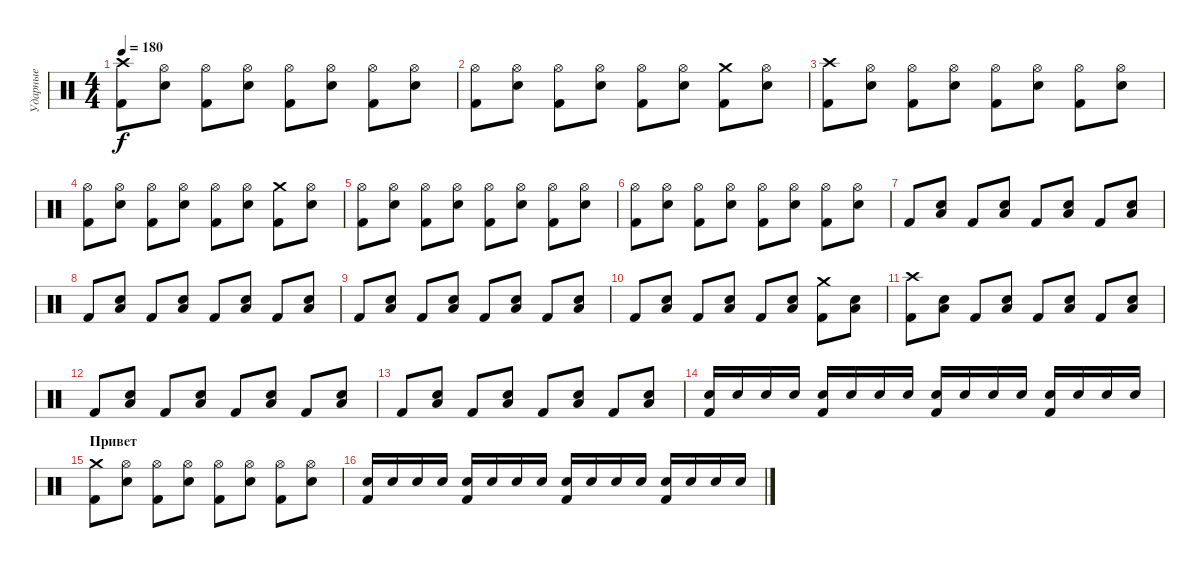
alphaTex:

\track ("Ударные" "Ударные") {instrument percussion}
\staff {score}
\articulation defaults
\ts (4 4)
\tempo 180
\clef neutral
\ks c
("Crash high (hit)" "Kick (hit) 2").8{dy f} ("Hi-Hat (open)" "Electric Snare (hit)").8 ("Hi-Hat (open)" "Kick (hit) 2").8 ("Hi-Hat (open)" "Electric Snare (hit)").8 ("Hi-Hat (open)" "Kick (hit) 2").8 ("Hi-Hat (open)" "Electric Snare (hit)").8 ("Hi-Hat (open)" "Kick (hit) 2").8 ("Hi-Hat (open)" "Electric Snare (hit)").8 |
("Hi-Hat (open)" "Kick (hit) 2").8 ("Hi-Hat (open)" "Electric Snare (hit)").8 ("Hi-Hat (open)" "Kick (hit) 2").8 ("Hi-Hat (open)" "Electric Snare (hit)").8 ("Hi-Hat (open)" "Kick (hit) 2").8 ("Hi-Hat (open)" "Electric Snare (hit)").8 ("Crash medium (hit)" "Kick (hit) 2").8 ("Hi-Hat (open)" "Electric Snare (hit)").8 |
("Crash high (hit)" "Kick (hit) 2").8 ("Hi-Hat (open)" "Electric Snare (hit)").8 ("Hi-Hat (open)" "Kick (hit) 2").8 ("Hi-Hat (open)" "Electric Snare (hit)").8 ("Hi-Hat (open)" "Kick (hit) 2").8 ("Hi-Hat (open)" "Electric Snare (hit)").8 ("Hi-Hat (open)" "Kick (hit) 2").8 ("Hi-Hat (open)" "Electric Snare (hit)").8 |
("Hi-Hat (open)" "Kick (hit) 2").8 ("Hi-Hat (open)" "Electric Snare (hit)").8 ("Hi-Hat (open)" "Kick (hit) 2").8 ("Hi-Hat (open)" "Electric Snare (hit)").8 ("Hi-Hat (open)" "Kick (hit) 2").8 ("Hi-Hat (open)" "Electric Snare (hit)").8 ("Crash medium (hit)" "Kick (hit) 2").8 ("Hi-Hat (open)" "Electric Snare (hit)").8 |
("Hi-Hat (open)" "Kick (hit) 2").8 ("Hi-Hat (open)" "Electric Snare (hit)").8 ("Hi-Hat (open)" "Kick (hit) 2").8 ("Hi-Hat (open)" "Electric Snare (hit)").8 ("Hi-Hat (open)" "Kick (hit) 2").8 ("Hi-Hat (open)" "Electric Snare (hit)").8 ("Hi-Hat (open)" "Kick (hit) 2").8 ("Hi-Hat (open)" "Electric Snare (hit)").8 |
("Hi-Hat (open)" "Kick (hit) 2").8 ("Hi-Hat (open)" "Electric Snare (hit)").8 ("Hi-Hat (open)" "Kick (hit) 2").8 ("Hi-Hat (open)" "Electric Snare (hit)").8 ("Hi-Hat (open)" "Kick (hit) 2").8 ("Hi-Hat (open)" "Electric Snare (hit)").8 ("Hi-Hat (open)" "Kick (hit) 2").8 ("Hi-Hat (open)" "Electric Snare (hit)").8 |
"Kick (hit) 2".8 ("Electric Snare (hit)" "Low Tom (hit)").8 "Kick (hit) 2".8 ("Electric Snare (hit)" "Low Tom (hit)").8 "Kick (hit) 2".8 ("Electric Snare (hit)" "Low Tom (hit)").8 "Kick (hit) 2".8 ("Electric Snare (hit)" "Low Tom (hit)").8 |
"Kick (hit) 2".8 ("Electric Snare (hit)" "Low Tom (hit)").8 "Kick (hit) 2".8 ("Electric Snare (hit)" "Low Tom (hit)").8 "Kick (hit) 2".8 ("Electric Snare (hit)" "Low Tom (hit)").8 "Kick (hit) 2".8 ("Electric Snare (hit)" "Low Tom (hit)").8 |
"Kick (hit) 2".8 ("Electric Snare (hit)" "Low Tom (hit)").8 "Kick (hit) 2".8 ("Electric Snare (hit)" "Low Tom (hit)").8 "Kick (hit) 2".8 ("Electric Snare (hit)" "Low Tom (hit)").8 "Kick (hit) 2".8 ("Electric Snare (hit)" "Low Tom (hit)").8 |
"Kick (hit) 2".8 ("Electric Snare (hit)" "Low Tom (hit)").8 "Kick (hit) 2".8 ("Electric Snare (hit)" "Low Tom (hit)").8 "Kick (hit) 2".8 ("Electric Snare (hit)" "Low Tom (hit)").8 ("Crash medium (hit)" "Kick (hit) 2").8 ("Electric Snare (hit)" "Low Tom (hit)").8 |
("Crash high (hit)" "Kick (hit) 2").8 ("Electric Snare (hit)" "Low Tom (hit)").8 "Kick (hit) 2".8 ("Electric Snare (hit)" "Low Tom (hit)").8 "Kick (hit) 2".8 ("Electric Snare (hit)" "Low Tom (hit)").8 "Kick (hit) 2".8 ("Electric Snare (hit)" "Low Tom (hit)").8 |
"Kick (hit) 2".8 ("Electric Snare (hit)" "Low Tom (hit)").8 "Kick (hit) 2".8 ("Electric Snare (hit)" "Low Tom (hit)").8 "Kick (hit) 2".8 ("Electric Snare (hit)" "Low Tom (hit)").8 "Kick (hit) 2".8 ("Electric Snare (hit)" "Low Tom (hit)").8 |
"Kick (hit) 2".8 ("Electric Snare (hit)" "Low Tom (hit)").8 "Kick (hit) 2".8 ("Electric Snare (hit)" "Low Tom (hit)").8 "Kick (hit) 2".8 ("Electric Snare (hit)" "Low Tom (hit)").8 "Kick (hit) 2".8 ("Electric Snare (hit)" "Low Tom (hit)").8 |
("Electric Snare (hit)" "Kick (hit) 2").16 "Electric Snare (hit)".16 "Electric Snare (hit)".16 "Electric Snare (hit)".16 ("Electric Snare (hit)" "Kick (hit) 2").16 "Electric Snare (hit)".16 "Electric Snare (hit)".16 "Electric Snare (hit)".16 ("Electric Snare (hit)" "Kick (hit) 2").16 "Electric Snare (hit)".16 "Electric Snare (hit)".16 "Electric Snare (hit)".16 ("Electric Snare (hit)" "Kick (hit) 2").16 "Electric Snare (hit)".16 "Electric Snare (hit)".16 "Electric Snare (hit)".16 |
\section ("" "Привет")
("Crash medium (hit)" "Kick (hit) 2").8 ("Hi-Hat (open)" "Electric Snare (hit)").8 ("Hi-Hat (open)" "Kick (hit) 2").8 ("Hi-Hat (open)" "Electric Snare (hit)").8 ("Hi-Hat (open)" "Kick (hit) 2").8 ("Hi-Hat (open)" "Electric Snare (hit)").8 ("Hi-Hat (open)" "Kick (hit) 2").8 ("Hi-Hat (open)" "Electric Snare (hit)").8 |
("Electric Snare (hit)" "Kick (hit) 2").16 "Electric Snare (hit)".16 "Electric Snare (hit)".16 "Electric Snare (hit)".16 ("Electric Snare (hit)" "Kick (hit) 2").16 "Electric Snare (hit)".16 "Electric Snare (hit)".16 "Electric Snare (hit)".16 ("Electric Snare (hit)" "Kick (hit) 2").16 "Electric Snare (hit)".16 "Electric Snare (hit)".16 "Electric Snare (hit)".16 ("Electric Snare (hit)" "Kick (hit) 2").16 "Electric Snare (hit)".16 "Electric Snare (hit)".16 "Electric Snare (hit)".16
